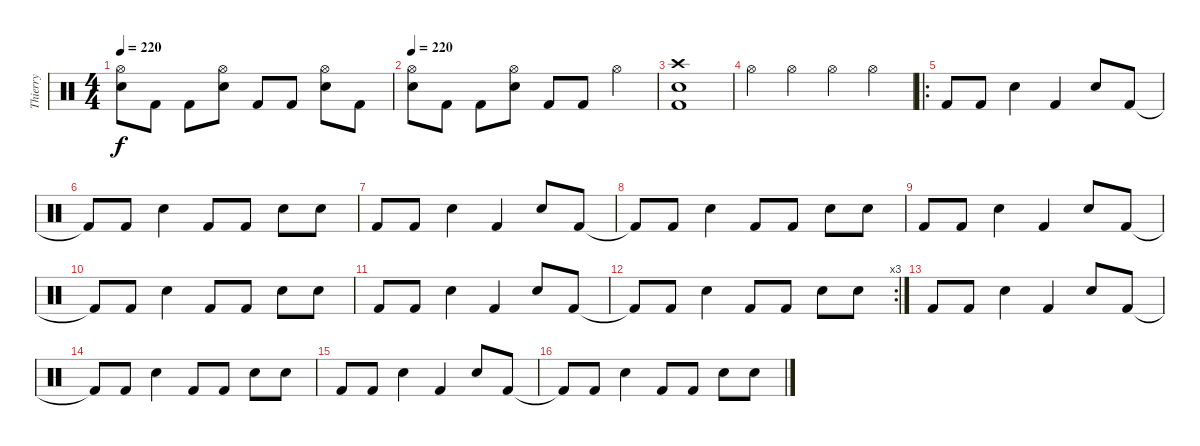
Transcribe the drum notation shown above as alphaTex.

\track ("Thierry" "Thierry") {instrument percussion}
\staff {score}
\articulation defaults
\ts (4 4)
\tempo 220
\clef neutral
\ks c
("Electric Snare (hit)" "Hi-Hat (open)").8{dy f} "Kick (hit) 2".8 "Kick (hit) 2".8 ("Electric Snare (hit)" "Hi-Hat (open)").8 "Kick (hit) 2".8 "Kick (hit) 2".8 ("Electric Snare (hit)" "Hi-Hat (open)").8 "Kick (hit) 2".8 |
\tempo 220
("Electric Snare (hit)" "Hi-Hat (open)").8 "Kick (hit) 2".8 "Kick (hit) 2".8 ("Electric Snare (hit)" "Hi-Hat (open)").8 "Kick (hit) 2".8 "Kick (hit) 2".8 "Hi-Hat (open)".4 |
("Electric Snare (hit)" "Crash high (hit)" "Kick (hit) 2").1 |
"Hi-Hat (open)".4 "Hi-Hat (open)".4 "Hi-Hat (open)".4 "Hi-Hat (open)".4 |
\ro "Kick (hit) 2".8 "Kick (hit) 2".8 "Electric Snare (hit)".4 "Kick (hit) 2".4 "Electric Snare (hit)".8 "Kick (hit) 2".8
|
"Kick (hit) 2"{t}.8 "Kick (hit) 2".8 "Electric Snare (hit)".4 "Kick (hit) 2".8 "Kick (hit) 2".8 "Electric Snare (hit)".8 "Electric Snare (hit)".8 |
"Kick (hit) 2".8 "Kick (hit) 2".8 "Electric Snare (hit)".4 "Kick (hit) 2".4 "Electric Snare (hit)".8 "Kick (hit) 2".8 |
"Kick (hit) 2"{t}.8 "Kick (hit) 2".8 "Electric Snare (hit)".4 "Kick (hit) 2".8 "Kick (hit) 2".8 "Electric Snare (hit)".8 "Electric Snare (hit)".8 |
"Kick (hit) 2".8 "Kick (hit) 2".8 "Electric Snare (hit)".4 "Kick (hit) 2".4 "Electric Snare (hit)".8 "Kick (hit) 2".8 |
"Kick (hit) 2"{t}.8 "Kick (hit) 2".8 "Electric Snare (hit)".4 "Kick (hit) 2".8 "Kick (hit) 2".8 "Electric Snare (hit)".8 "Electric Snare (hit)".8 |
"Kick (hit) 2".8 "Kick (hit) 2".8 "Electric Snare (hit)".4 "Kick (hit) 2".4 "Electric Snare (hit)".8 "Kick (hit) 2".8 |
\rc 3 "Kick (hit) 2"{t}.8 "Kick (hit) 2".8 "Electric Snare (hit)".4 "Kick (hit) 2".8 "Kick (hit) 2".8 "Electric Snare (hit)".8 "Electric Snare (hit)".8
|
"Kick (hit) 2".8 "Kick (hit) 2".8 "Electric Snare (hit)".4 "Kick (hit) 2".4 "Electric Snare (hit)".8 "Kick (hit) 2".8 |
"Kick (hit) 2"{t}.8 "Kick (hit) 2".8 "Electric Snare (hit)".4 "Kick (hit) 2".8 "Kick (hit) 2".8 "Electric Snare (hit)".8 "Electric Snare (hit)".8 |
"Kick (hit) 2".8 "Kick (hit) 2".8 "Electric Snare (hit)".4 "Kick (hit) 2".4 "Electric Snare (hit)".8 "Kick (hit) 2".8 |
"Kick (hit) 2"{t}.8 "Kick (hit) 2".8 "Electric Snare (hit)".4 "Kick (hit) 2".8 "Kick (hit) 2".8 "Electric Snare (hit)".8 "Electric Snare (hit)".8
